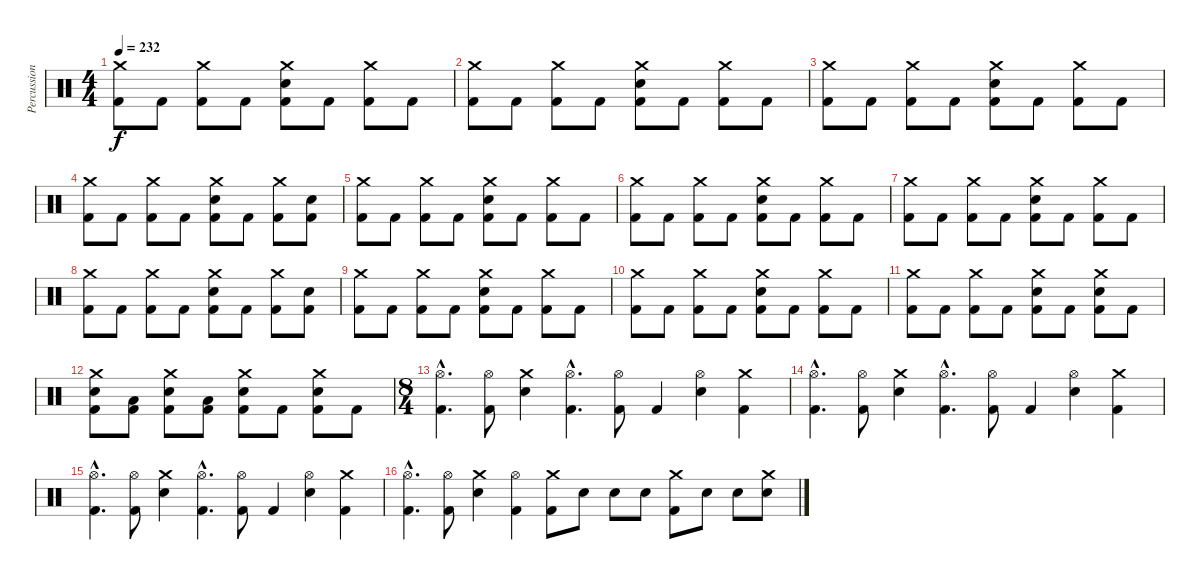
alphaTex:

\track ("Percussions" "Percussion") {instrument percussion}
\staff {score}
\articulation defaults
\ts (4 4)
\tempo 232
\clef neutral
\ks c
("Crash medium (hit)" "Kick (hit) 2").8{dy f} "Kick (hit) 2".8 ("Crash medium (hit)" "Kick (hit) 2").8 "Kick (hit) 2".8 ("Crash medium (hit)" "Electric Snare (hit)" "Kick (hit) 2").8 "Kick (hit) 2".8 ("Crash medium (hit)" "Kick (hit) 2").8 "Kick (hit) 2".8 |
("Crash medium (hit)" "Kick (hit) 2").8 "Kick (hit) 2".8 ("Crash medium (hit)" "Kick (hit) 2").8 "Kick (hit) 2".8 ("Crash medium (hit)" "Electric Snare (hit)" "Kick (hit) 2").8 "Kick (hit) 2".8 ("Crash medium (hit)" "Kick (hit) 2").8 "Kick (hit) 2".8 |
("Crash medium (hit)" "Kick (hit) 2").8 "Kick (hit) 2".8 ("Crash medium (hit)" "Kick (hit) 2").8 "Kick (hit) 2".8 ("Crash medium (hit)" "Electric Snare (hit)" "Kick (hit) 2").8 "Kick (hit) 2".8 ("Crash medium (hit)" "Kick (hit) 2").8 "Kick (hit) 2".8 |
("Crash medium (hit)" "Kick (hit) 2").8 "Kick (hit) 2".8 ("Crash medium (hit)" "Kick (hit) 2").8 "Kick (hit) 2".8 ("Crash medium (hit)" "Electric Snare (hit)" "Kick (hit) 2").8 "Kick (hit) 2".8 ("Crash medium (hit)" "Kick (hit) 2").8 ("Electric Snare (hit)" "Kick (hit) 2").8 |
("Crash medium (hit)" "Kick (hit) 2").8 "Kick (hit) 2".8 ("Crash medium (hit)" "Kick (hit) 2").8 "Kick (hit) 2".8 ("Crash medium (hit)" "Electric Snare (hit)" "Kick (hit) 2").8 "Kick (hit) 2".8 ("Crash medium (hit)" "Kick (hit) 2").8 "Kick (hit) 2".8 |
("Crash medium (hit)" "Kick (hit) 2").8 "Kick (hit) 2".8 ("Crash medium (hit)" "Kick (hit) 2").8 "Kick (hit) 2".8 ("Crash medium (hit)" "Electric Snare (hit)" "Kick (hit) 2").8 "Kick (hit) 2".8 ("Crash medium (hit)" "Kick (hit) 2").8 "Kick (hit) 2".8 |
("Crash medium (hit)" "Kick (hit) 2").8 "Kick (hit) 2".8 ("Crash medium (hit)" "Kick (hit) 2").8 "Kick (hit) 2".8 ("Crash medium (hit)" "Electric Snare (hit)" "Kick (hit) 2").8 "Kick (hit) 2".8 ("Crash medium (hit)" "Kick (hit) 2").8 "Kick (hit) 2".8 |
("Crash medium (hit)" "Kick (hit) 2").8 "Kick (hit) 2".8 ("Crash medium (hit)" "Kick (hit) 2").8 "Kick (hit) 2".8 ("Crash medium (hit)" "Electric Snare (hit)" "Kick (hit) 2").8 "Kick (hit) 2".8 ("Crash medium (hit)" "Kick (hit) 2").8 ("Electric Snare (hit)" "Kick (hit) 2").8 |
("Crash medium (hit)" "Kick (hit) 2").8 "Kick (hit) 2".8 ("Crash medium (hit)" "Kick (hit) 2").8 "Kick (hit) 2".8 ("Crash medium (hit)" "Electric Snare (hit)" "Kick (hit) 2").8 "Kick (hit) 2".8 ("Crash medium (hit)" "Kick (hit) 2").8 "Kick (hit) 2".8 |
("Crash medium (hit)" "Kick (hit) 2").8 "Kick (hit) 2".8 ("Crash medium (hit)" "Kick (hit) 2").8 "Kick (hit) 2".8 ("Crash medium (hit)" "Electric Snare (hit)" "Kick (hit) 2").8 "Kick (hit) 2".8 ("Crash medium (hit)" "Kick (hit) 2").8 "Kick (hit) 2".8 |
("Crash medium (hit)" "Kick (hit) 2").8 "Kick (hit) 2".8 ("Crash medium (hit)" "Kick (hit) 2").8 "Kick (hit) 2".8 ("Crash medium (hit)" "Electric Snare (hit)" "Kick (hit) 2").8 "Kick (hit) 2".8 ("Crash medium (hit)" "Electric Snare (hit)" "Kick (hit) 2").8 "Kick (hit) 2".8 |
("Crash medium (hit)" "Electric Snare (hit)" "Kick (hit) 2").8 ("Low Tom (hit)" "Kick (hit) 2").8 ("Crash medium (hit)" "Electric Snare (hit)" "Kick (hit) 2").8 ("Low Floor Tom (hit)" "Kick (hit) 2").8 ("Crash medium (hit)" "Electric Snare (hit)" "Kick (hit) 2").8 "Kick (hit) 2".8 ("Crash medium (hit)" "Electric Snare (hit)" "Kick (hit) 2").8 "Kick (hit) 2".8 |
\ts (8 4)
("Hi-Hat (open)"{hac} "Kick (hit) 2"{hac}).4{d} ("Hi-Hat (open)" "Kick (hit) 2").8 ("Crash medium (hit)" "Electric Snare (hit)").4 ("Hi-Hat (open)"{hac} "Kick (hit) 2"{hac}).4{d} ("Hi-Hat (open)" "Kick (hit) 2").8 "Kick (hit) 2".4 ("Hi-Hat (open)" "Electric Snare (hit)").4 ("Crash medium (hit)" "Kick (hit) 2").4 |
("Hi-Hat (open)"{hac} "Kick (hit) 2"{hac}).4{d} ("Hi-Hat (open)" "Kick (hit) 2").8 ("Crash medium (hit)" "Electric Snare (hit)").4 ("Hi-Hat (open)"{hac} "Kick (hit) 2"{hac}).4{d} ("Hi-Hat (open)" "Kick (hit) 2").8 "Kick (hit) 2".4 ("Hi-Hat (open)" "Electric Snare (hit)").4 ("Crash medium (hit)" "Kick (hit) 2").4 |
("Hi-Hat (open)"{hac} "Kick (hit) 2"{hac}).4{d} ("Hi-Hat (open)" "Kick (hit) 2").8 ("Crash medium (hit)" "Electric Snare (hit)").4 ("Hi-Hat (open)"{hac} "Kick (hit) 2"{hac}).4{d} ("Hi-Hat (open)" "Kick (hit) 2").8 "Kick (hit) 2".4 ("Hi-Hat (open)" "Electric Snare (hit)").4 ("Crash medium (hit)" "Kick (hit) 2").4 |
("Hi-Hat (open)"{hac} "Kick (hit) 2"{hac}).4{d} ("Hi-Hat (open)" "Kick (hit) 2").8 ("Crash medium (hit)" "Electric Snare (hit)").4 ("Hi-Hat (open)" "Kick (hit) 2").4 ("Crash medium (hit)" "Kick (hit) 2").8 "Electric Snare (hit)".8 "Electric Snare (hit)".8 "Electric Snare (hit)".8 ("Crash medium (hit)" "Kick (hit) 2").8 "Electric Snare (hit)".8 "Electric Snare (hit)".8 ("Crash medium (hit)" "Electric Snare (hit)").8
